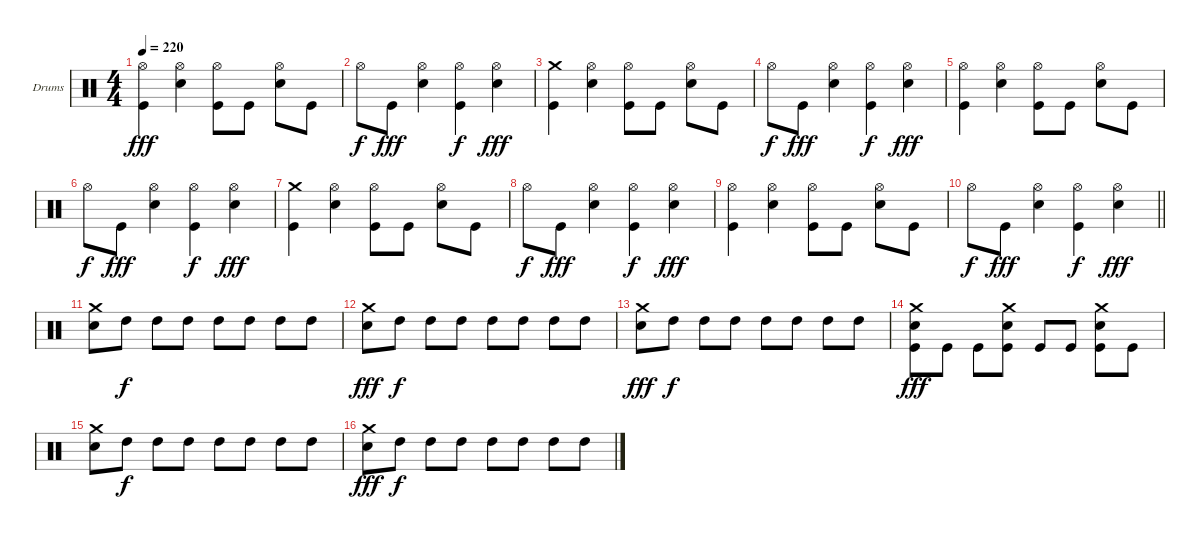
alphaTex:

\bracketExtendMode groupsimilarinstruments
\firstSystemTrackNameOrientation horizontal
\otherSystemsTrackNameOrientation horizontal
\track ("Stefan Schwarzmann" "Drums") {instrument percussion}
\staff {score}
\articulation defaults
\ts (4 4)
\tempo 220
\clef neutral
\ks c
("Kick (hit)" "Hi-Hat (open)").4{dy fff} ("Snare (hit) 2" "Hi-Hat (open)").4 ("Kick (hit)" "Hi-Hat (open)").8 "Kick (hit)".8 ("Snare (hit) 2" "Hi-Hat (open)").8 "Kick (hit)".8 |
"Hi-Hat (open)".8{dy f} "Kick (hit)".8{dy fff} ("Snare (hit) 2" "Hi-Hat (open)").4 ("Kick (hit)" "Hi-Hat (open)").4{dy f} ("Snare (hit) 2" "Hi-Hat (open)").4{dy fff} |
("Kick (hit)" "Crash medium (hit)").4 ("Snare (hit) 2" "Hi-Hat (open)").4 ("Kick (hit)" "Hi-Hat (open)").8 "Kick (hit)".8 ("Snare (hit) 2" "Hi-Hat (open)").8 "Kick (hit)".8 |
"Hi-Hat (open)".8{dy f} "Kick (hit)".8{dy fff} ("Snare (hit) 2" "Hi-Hat (open)").4 ("Kick (hit)" "Hi-Hat (open)").4{dy f} ("Snare (hit) 2" "Hi-Hat (open)").4{dy fff} |
("Kick (hit)" "Hi-Hat (open)").4 ("Snare (hit) 2" "Hi-Hat (open)").4 ("Kick (hit)" "Hi-Hat (open)").8 "Kick (hit)".8 ("Snare (hit) 2" "Hi-Hat (open)").8 "Kick (hit)".8 |
"Hi-Hat (open)".8{dy f} "Kick (hit)".8{dy fff} ("Snare (hit) 2" "Hi-Hat (open)").4 ("Kick (hit)" "Hi-Hat (open)").4{dy f} ("Snare (hit) 2" "Hi-Hat (open)").4{dy fff} |
("Kick (hit)" "Crash medium (hit)").4 ("Snare (hit) 2" "Hi-Hat (open)").4 ("Kick (hit)" "Hi-Hat (open)").8 "Kick (hit)".8 ("Snare (hit) 2" "Hi-Hat (open)").8 "Kick (hit)".8 |
"Hi-Hat (open)".8{dy f} "Kick (hit)".8{dy fff} ("Snare (hit) 2" "Hi-Hat (open)").4 ("Kick (hit)" "Hi-Hat (open)").4{dy f} ("Snare (hit) 2" "Hi-Hat (open)").4{dy fff} |
("Kick (hit)" "Hi-Hat (open)").4 ("Snare (hit) 2" "Hi-Hat (open)").4 ("Kick (hit)" "Hi-Hat (open)").8 "Kick (hit)".8 ("Snare (hit) 2" "Hi-Hat (open)").8 "Kick (hit)".8 |
\barLineRight lightlight "Hi-Hat (open)".8{dy f} "Kick (hit)".8{dy fff}
("Snare (hit) 2" "Hi-Hat (open)").4 ("Kick (hit)" "Hi-Hat (open)").4{dy f} ("Snare (hit) 2" "Hi-Hat (open)").4{dy fff} |
("Snare (hit) 2" "Crash medium (hit)").8 "High Tom (hit)".8{dy f} "High Tom (hit)".8 "High Tom (hit)".8 "High Tom (hit)".8 "High Tom (hit)".8 "High Tom (hit)".8 "High Tom (hit)".8 |
("Snare (hit) 2" "Crash medium (hit)").8{dy fff} "High Tom (hit)".8{dy f} "High Tom (hit)".8 "High Tom (hit)".8 "High Tom (hit)".8 "High Tom (hit)".8 "High Tom (hit)".8 "High Tom (hit)".8 |
("Snare (hit) 2" "Crash medium (hit)").8{dy fff} "High Tom (hit)".8{dy f} "High Tom (hit)".8 "High Tom (hit)".8 "High Tom (hit)".8 "High Tom (hit)".8 "High Tom (hit)".8 "High Tom (hit)".8 |
("Kick (hit)" "Snare (hit) 2" "Crash medium (hit)").8{dy fff} "Kick (hit)".8 "Kick (hit)".8 ("Kick (hit)" "Snare (hit) 2" "Crash medium (hit)").8 "Kick (hit)".8 "Kick (hit)".8 ("Kick (hit)" "Snare (hit) 2" "Crash medium (hit)").8 "Kick (hit)".8 |
("Snare (hit) 2" "Crash medium (hit)").8 "High Tom (hit)".8{dy f} "High Tom (hit)".8 "High Tom (hit)".8 "High Tom (hit)".8 "High Tom (hit)".8 "High Tom (hit)".8 "High Tom (hit)".8 |
("Snare (hit) 2" "Crash medium (hit)").8{dy fff} "High Tom (hit)".8{dy f} "High Tom (hit)".8 "High Tom (hit)".8 "High Tom (hit)".8 "High Tom (hit)".8 "High Tom (hit)".8 "High Tom (hit)".8
